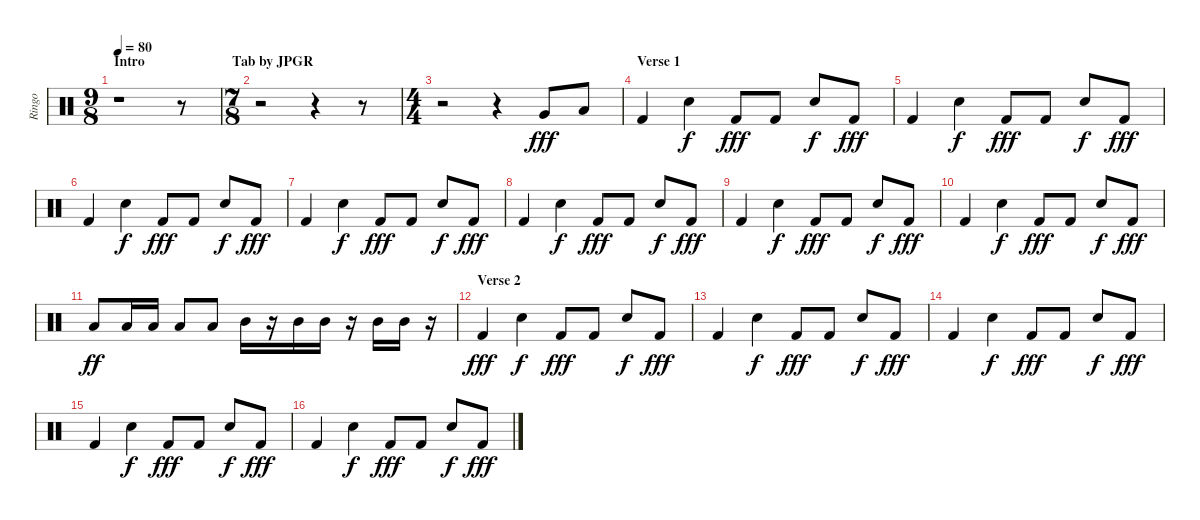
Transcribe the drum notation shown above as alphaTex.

\track ("Ringo" "Ringo") {instrument percussion}
\staff {score}
\articulation defaults
\ts (9 8)
\section ("" "Intro                         Tab by JPGR")
\tempo 80
\clef neutral
\ks c
r.1{dy fff} r.8 |
\ts (7 8)
r.2 r.4 r.8 |
\ts (4 4)
r.2 r.4 "Very Low Tom (hit)".8 "Low Floor Tom (hit)".8 |
\section ("" "Verse 1")
"Kick (hit) 2".4 "Snare (hit) 2".4{dy f} "Kick (hit) 2".8{dy fff} "Kick (hit) 2".8 "Snare (hit) 2".8{dy f} "Kick (hit) 2".8{dy fff} |
"Kick (hit) 2".4 "Snare (hit) 2".4{dy f} "Kick (hit) 2".8{dy fff} "Kick (hit) 2".8 "Snare (hit) 2".8{dy f} "Kick (hit) 2".8{dy fff} |
"Kick (hit) 2".4 "Snare (hit) 2".4{dy f} "Kick (hit) 2".8{dy fff} "Kick (hit) 2".8 "Snare (hit) 2".8{dy f} "Kick (hit) 2".8{dy fff} |
"Kick (hit) 2".4 "Snare (hit) 2".4{dy f} "Kick (hit) 2".8{dy fff} "Kick (hit) 2".8 "Snare (hit) 2".8{dy f} "Kick (hit) 2".8{dy fff} |
"Kick (hit) 2".4 "Snare (hit) 2".4{dy f} "Kick (hit) 2".8{dy fff} "Kick (hit) 2".8 "Snare (hit) 2".8{dy f} "Kick (hit) 2".8{dy fff} |
"Kick (hit) 2".4 "Snare (hit) 2".4{dy f} "Kick (hit) 2".8{dy fff} "Kick (hit) 2".8 "Snare (hit) 2".8{dy f} "Kick (hit) 2".8{dy fff} |
"Kick (hit) 2".4 "Snare (hit) 2".4{dy f} "Kick (hit) 2".8{dy fff} "Kick (hit) 2".8 "Snare (hit) 2".8{dy f} "Kick (hit) 2".8{dy fff} |
"Low Floor Tom (hit)".8{dy ff} "Low Floor Tom (hit)".16 "Low Floor Tom (hit)".16 "Low Floor Tom (hit)".8 "Low Floor Tom (hit)".8 "Mid Tom (hit)".16 r.16 "Mid Tom (hit)".16 "Mid Tom (hit)".16 r.16 "Mid Tom (hit)".16 "Mid Tom (hit)".16 r.16 |
\section ("" "Verse 2")
"Kick (hit) 2".4{dy fff} "Snare (hit) 2".4{dy f} "Kick (hit) 2".8{dy fff} "Kick (hit) 2".8 "Snare (hit) 2".8{dy f} "Kick (hit) 2".8{dy fff} |
"Kick (hit) 2".4 "Snare (hit) 2".4{dy f} "Kick (hit) 2".8{dy fff} "Kick (hit) 2".8 "Snare (hit) 2".8{dy f} "Kick (hit) 2".8{dy fff} |
"Kick (hit) 2".4 "Snare (hit) 2".4{dy f} "Kick (hit) 2".8{dy fff} "Kick (hit) 2".8 "Snare (hit) 2".8{dy f} "Kick (hit) 2".8{dy fff} |
"Kick (hit) 2".4 "Snare (hit) 2".4{dy f} "Kick (hit) 2".8{dy fff} "Kick (hit) 2".8 "Snare (hit) 2".8{dy f} "Kick (hit) 2".8{dy fff} |
"Kick (hit) 2".4 "Snare (hit) 2".4{dy f} "Kick (hit) 2".8{dy fff} "Kick (hit) 2".8 "Snare (hit) 2".8{dy f} "Kick (hit) 2".8{dy fff}
